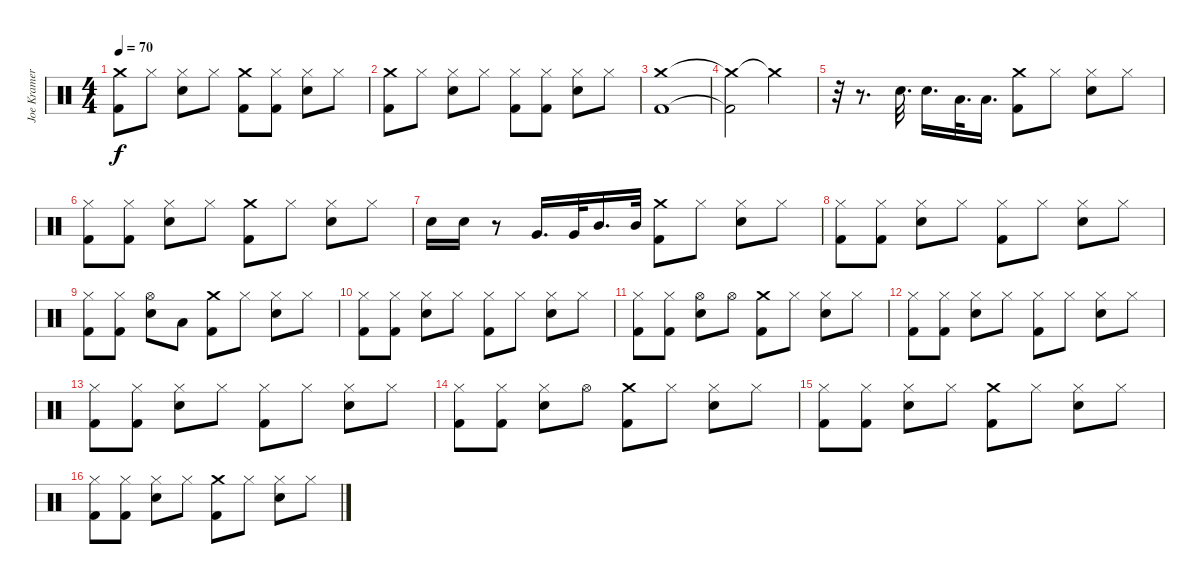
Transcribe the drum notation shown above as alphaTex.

\track ("Joe Kramer" "Joe Kramer") {instrument percussion}
\staff {score}
\articulation defaults
\ts (4 4)
\tempo 70
\clef neutral
\ks c
("Crash medium (hit)" "Kick (hit) 2").8{dy f} "Hi-Hat (closed)".8 ("Hi-Hat (closed)" "Snare (hit) 2").8 "Hi-Hat (closed)".8 ("Crash medium (hit)" "Kick (hit) 2").8 ("Hi-Hat (closed)" "Kick (hit) 2").8 ("Hi-Hat (closed)" "Snare (hit) 2").8 "Hi-Hat (closed)".8 |
("Crash medium (hit)" "Kick (hit) 2").8 "Hi-Hat (closed)".8 ("Hi-Hat (closed)" "Snare (hit) 2").8 "Hi-Hat (closed)".8 ("Hi-Hat (closed)" "Kick (hit) 2").8 ("Hi-Hat (closed)" "Kick (hit) 2").8 ("Hi-Hat (closed)" "Snare (hit) 2").8 "Hi-Hat (closed)".8 |
("Crash medium (hit)" "Kick (hit) 2").1 |
("Crash medium (hit)"{t} "Kick (hit) 2"{t}).2 "Crash medium (hit)"{t}.2 |
r.32 r.8{d} "Snare (hit) 2".32{d} "Snare (hit) 2".16{d} "Low Tom (hit)".32{d} "Low Tom (hit)".16{d} ("Crash medium (hit)" "Kick (hit) 2").8 "Hi-Hat (closed)".8 ("Hi-Hat (closed)" "Snare (hit) 2").8 "Hi-Hat (closed)".8 |
("Hi-Hat (closed)" "Kick (hit) 2").8 ("Hi-Hat (closed)" "Kick (hit) 2").8 ("Hi-Hat (closed)" "Snare (hit) 2").8 "Hi-Hat (closed)".8 ("Crash medium (hit)" "Kick (hit) 2").8 "Hi-Hat (closed)".8 ("Hi-Hat (closed)" "Snare (hit) 2").8 "Hi-Hat (closed)".8 |
"Snare (hit) 2".16 "Snare (hit) 2".16 r.8 "Very Low Tom (hit)".16{d} "Very Low Tom (hit)".32 "Mid Tom (hit)".16{d} "Mid Tom (hit)".32 ("Crash medium (hit)" "Kick (hit) 2").8 "Hi-Hat (closed)".8 ("Hi-Hat (closed)" "Snare (hit) 2").8 "Hi-Hat (closed)".8 |
("Hi-Hat (closed)" "Kick (hit) 2").8 ("Hi-Hat (closed)" "Kick (hit) 2").8 ("Hi-Hat (closed)" "Snare (hit) 2").8 "Hi-Hat (closed)".8 ("Hi-Hat (closed)" "Kick (hit) 2").8 "Hi-Hat (closed)".8 ("Hi-Hat (closed)" "Snare (hit) 2").8 "Hi-Hat (closed)".8 |
("Hi-Hat (closed)" "Kick (hit) 2").8 ("Hi-Hat (closed)" "Kick (hit) 2").8 ("Hi-Hat (open)" "Snare (hit) 2").8 "Low Floor Tom (hit)".8 ("Crash medium (hit)" "Kick (hit) 2").8 "Hi-Hat (closed)".8 ("Hi-Hat (closed)" "Snare (hit) 2").8 "Hi-Hat (closed)".8 |
("Hi-Hat (closed)" "Kick (hit) 2").8 ("Hi-Hat (closed)" "Kick (hit) 2").8 ("Hi-Hat (closed)" "Snare (hit) 2").8 "Hi-Hat (closed)".8 ("Hi-Hat (closed)" "Kick (hit) 2").8 "Hi-Hat (closed)".8 ("Hi-Hat (closed)" "Snare (hit) 2").8 "Hi-Hat (closed)".8 |
("Hi-Hat (closed)" "Kick (hit) 2").8 ("Hi-Hat (closed)" "Kick (hit) 2").8 ("Hi-Hat (open)" "Snare (hit) 2").8 "Hi-Hat (open)".8 ("Crash medium (hit)" "Kick (hit) 2").8 "Hi-Hat (closed)".8 ("Hi-Hat (closed)" "Snare (hit) 2").8 "Hi-Hat (closed)".8 |
("Hi-Hat (closed)" "Kick (hit) 2").8 ("Hi-Hat (closed)" "Kick (hit) 2").8 ("Hi-Hat (closed)" "Snare (hit) 2").8 "Hi-Hat (closed)".8 ("Hi-Hat (closed)" "Kick (hit) 2").8 "Hi-Hat (closed)".8 ("Hi-Hat (closed)" "Snare (hit) 2").8 "Hi-Hat (closed)".8 |
("Hi-Hat (closed)" "Kick (hit) 2").8 ("Hi-Hat (closed)" "Kick (hit) 2").8 ("Hi-Hat (closed)" "Snare (hit) 2").8 "Hi-Hat (closed)".8 ("Hi-Hat (closed)" "Kick (hit) 2").8 "Hi-Hat (closed)".8 ("Hi-Hat (closed)" "Snare (hit) 2").8 "Hi-Hat (closed)".8 |
("Hi-Hat (closed)" "Kick (hit) 2").8 ("Hi-Hat (closed)" "Kick (hit) 2").8 ("Hi-Hat (closed)" "Snare (hit) 2").8 "Hi-Hat (open)".8 ("Crash medium (hit)" "Kick (hit) 2").8 "Hi-Hat (closed)".8 ("Hi-Hat (closed)" "Snare (hit) 2").8 "Hi-Hat (closed)".8 |
("Hi-Hat (closed)" "Kick (hit) 2").8 ("Hi-Hat (closed)" "Kick (hit) 2").8 ("Hi-Hat (closed)" "Snare (hit) 2").8 "Hi-Hat (closed)".8 ("Crash medium (hit)" "Kick (hit) 2").8 "Hi-Hat (closed)".8 ("Hi-Hat (closed)" "Snare (hit) 2").8 "Hi-Hat (closed)".8 |
("Hi-Hat (closed)" "Kick (hit) 2").8 ("Hi-Hat (closed)" "Kick (hit) 2").8 ("Hi-Hat (closed)" "Snare (hit) 2").8 "Hi-Hat (closed)".8 ("Crash medium (hit)" "Kick (hit) 2").8 "Hi-Hat (closed)".8 ("Hi-Hat (closed)" "Snare (hit) 2").8 "Hi-Hat (closed)".8
